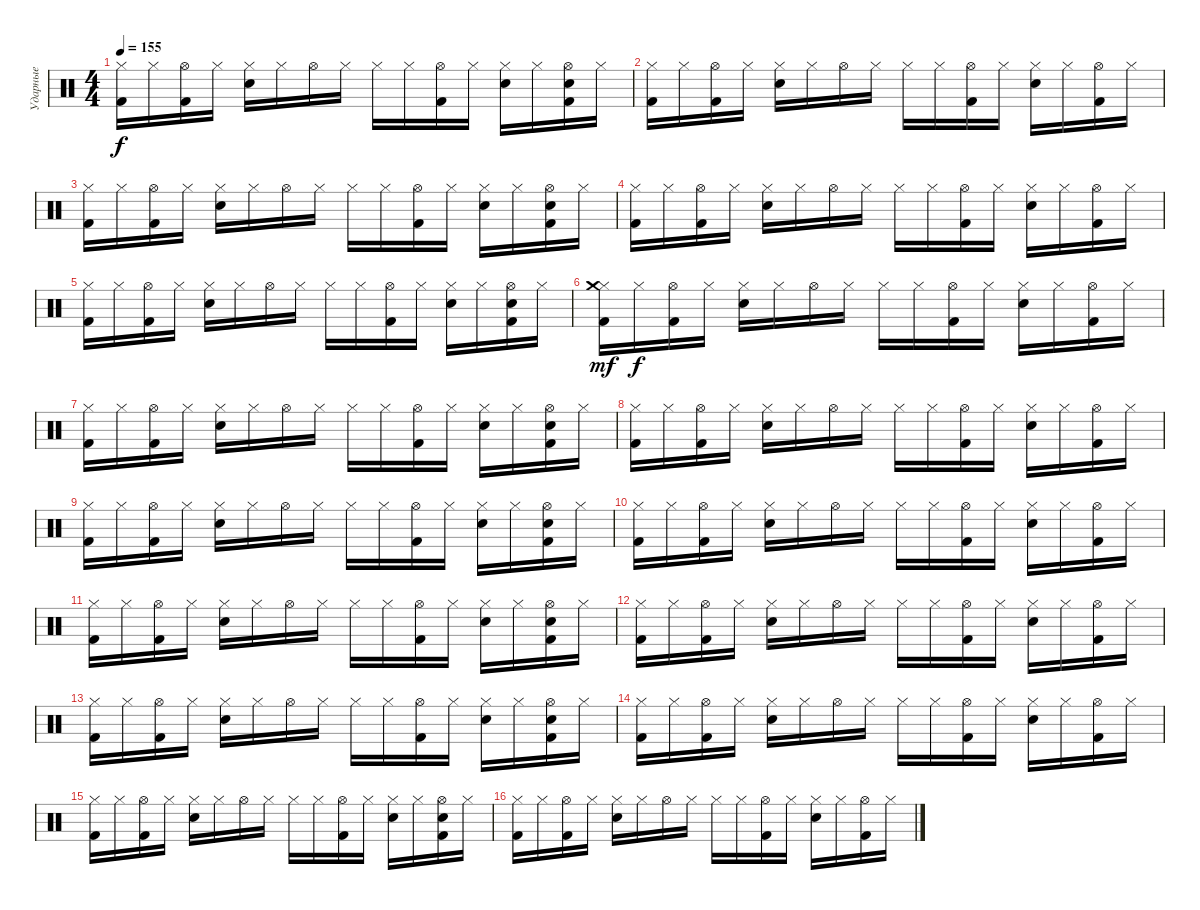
\track ("Ударные" "Ударные") {instrument percussion}
\staff {score}
\articulation defaults
\ts (4 4)
\tempo 155
\clef neutral
\ks c
("Hi-Hat (closed)" "Kick (hit) 2").16{dy f} "Hi-Hat (closed)".16 ("Hi-Hat (open)" "Kick (hit) 2").16 "Hi-Hat (closed)".16 ("Hi-Hat (closed)" "Electric Snare (hit)").16 "Hi-Hat (closed)".16 "Hi-Hat (open)".16 "Hi-Hat (closed)".16 "Hi-Hat (closed)".16 "Hi-Hat (closed)".16 ("Hi-Hat (open)" "Kick (hit) 2").16 "Hi-Hat (closed)".16 ("Hi-Hat (closed)" "Electric Snare (hit)").16 "Hi-Hat (closed)".16 ("Hi-Hat (open)" "Kick (hit) 2" "Electric Snare (hit)").16 "Hi-Hat (closed)".16 |
("Hi-Hat (closed)" "Kick (hit) 2").16 "Hi-Hat (closed)".16 ("Hi-Hat (open)" "Kick (hit) 2").16 "Hi-Hat (closed)".16 ("Hi-Hat (closed)" "Electric Snare (hit)").16 "Hi-Hat (closed)".16 "Hi-Hat (open)".16 "Hi-Hat (closed)".16 "Hi-Hat (closed)".16 "Hi-Hat (closed)".16 ("Hi-Hat (open)" "Kick (hit) 2").16 "Hi-Hat (closed)".16 ("Hi-Hat (closed)" "Electric Snare (hit)").16 "Hi-Hat (closed)".16 ("Hi-Hat (open)" "Kick (hit) 2").16 "Hi-Hat (closed)".16 |
("Hi-Hat (closed)" "Kick (hit) 2").16 "Hi-Hat (closed)".16 ("Hi-Hat (open)" "Kick (hit) 2").16 "Hi-Hat (closed)".16 ("Hi-Hat (closed)" "Electric Snare (hit)").16 "Hi-Hat (closed)".16 "Hi-Hat (open)".16 "Hi-Hat (closed)".16 "Hi-Hat (closed)".16 "Hi-Hat (closed)".16 ("Hi-Hat (open)" "Kick (hit) 2").16 "Hi-Hat (closed)".16 ("Hi-Hat (closed)" "Electric Snare (hit)").16 "Hi-Hat (closed)".16 ("Hi-Hat (open)" "Kick (hit) 2" "Electric Snare (hit)").16 "Hi-Hat (closed)".16 |
("Hi-Hat (closed)" "Kick (hit) 2").16 "Hi-Hat (closed)".16 ("Hi-Hat (open)" "Kick (hit) 2").16 "Hi-Hat (closed)".16 ("Hi-Hat (closed)" "Electric Snare (hit)").16 "Hi-Hat (closed)".16 "Hi-Hat (open)".16 "Hi-Hat (closed)".16 "Hi-Hat (closed)".16 "Hi-Hat (closed)".16 ("Hi-Hat (open)" "Kick (hit) 2").16 "Hi-Hat (closed)".16 ("Hi-Hat (closed)" "Electric Snare (hit)").16 "Hi-Hat (closed)".16 ("Hi-Hat (open)" "Kick (hit) 2").16 "Hi-Hat (closed)".16 |
("Hi-Hat (closed)" "Kick (hit) 2").16 "Hi-Hat (closed)".16 ("Hi-Hat (open)" "Kick (hit) 2").16 "Hi-Hat (closed)".16 ("Hi-Hat (closed)" "Electric Snare (hit)").16 "Hi-Hat (closed)".16 "Hi-Hat (open)".16 "Hi-Hat (closed)".16 "Hi-Hat (closed)".16 "Hi-Hat (closed)".16 ("Hi-Hat (open)" "Kick (hit) 2").16 "Hi-Hat (closed)".16 ("Hi-Hat (closed)" "Electric Snare (hit)").16 "Hi-Hat (closed)".16 ("Hi-Hat (open)" "Kick (hit) 2" "Electric Snare (hit)").16 "Hi-Hat (closed)".16 |
("Hi-Hat (closed)" "Kick (hit) 2" "Crash medium (hit)").16{dy mf} "Hi-Hat (closed)".16{dy f} ("Hi-Hat (open)" "Kick (hit) 2").16 "Hi-Hat (closed)".16 ("Hi-Hat (closed)" "Electric Snare (hit)").16 "Hi-Hat (closed)".16 "Hi-Hat (open)".16 "Hi-Hat (closed)".16 "Hi-Hat (closed)".16 "Hi-Hat (closed)".16 ("Hi-Hat (open)" "Kick (hit) 2").16 "Hi-Hat (closed)".16 ("Hi-Hat (closed)" "Electric Snare (hit)").16 "Hi-Hat (closed)".16 ("Hi-Hat (open)" "Kick (hit) 2").16 "Hi-Hat (closed)".16 |
("Hi-Hat (closed)" "Kick (hit) 2").16 "Hi-Hat (closed)".16 ("Hi-Hat (open)" "Kick (hit) 2").16 "Hi-Hat (closed)".16 ("Hi-Hat (closed)" "Electric Snare (hit)").16 "Hi-Hat (closed)".16 "Hi-Hat (open)".16 "Hi-Hat (closed)".16 "Hi-Hat (closed)".16 "Hi-Hat (closed)".16 ("Hi-Hat (open)" "Kick (hit) 2").16 "Hi-Hat (closed)".16 ("Hi-Hat (closed)" "Electric Snare (hit)").16 "Hi-Hat (closed)".16 ("Hi-Hat (open)" "Kick (hit) 2" "Electric Snare (hit)").16 "Hi-Hat (closed)".16 |
("Hi-Hat (closed)" "Kick (hit) 2").16 "Hi-Hat (closed)".16 ("Hi-Hat (open)" "Kick (hit) 2").16 "Hi-Hat (closed)".16 ("Hi-Hat (closed)" "Electric Snare (hit)").16 "Hi-Hat (closed)".16 "Hi-Hat (open)".16 "Hi-Hat (closed)".16 "Hi-Hat (closed)".16 "Hi-Hat (closed)".16 ("Hi-Hat (open)" "Kick (hit) 2").16 "Hi-Hat (closed)".16 ("Hi-Hat (closed)" "Electric Snare (hit)").16 "Hi-Hat (closed)".16 ("Hi-Hat (open)" "Kick (hit) 2").16 "Hi-Hat (closed)".16 |
("Hi-Hat (closed)" "Kick (hit) 2").16 "Hi-Hat (closed)".16 ("Hi-Hat (open)" "Kick (hit) 2").16 "Hi-Hat (closed)".16 ("Hi-Hat (closed)" "Electric Snare (hit)").16 "Hi-Hat (closed)".16 "Hi-Hat (open)".16 "Hi-Hat (closed)".16 "Hi-Hat (closed)".16 "Hi-Hat (closed)".16 ("Hi-Hat (open)" "Kick (hit) 2").16 "Hi-Hat (closed)".16 ("Hi-Hat (closed)" "Electric Snare (hit)").16 "Hi-Hat (closed)".16 ("Hi-Hat (open)" "Kick (hit) 2" "Electric Snare (hit)").16 "Hi-Hat (closed)".16 |
("Hi-Hat (closed)" "Kick (hit) 2").16 "Hi-Hat (closed)".16 ("Hi-Hat (open)" "Kick (hit) 2").16 "Hi-Hat (closed)".16 ("Hi-Hat (closed)" "Electric Snare (hit)").16 "Hi-Hat (closed)".16 "Hi-Hat (open)".16 "Hi-Hat (closed)".16 "Hi-Hat (closed)".16 "Hi-Hat (closed)".16 ("Hi-Hat (open)" "Kick (hit) 2").16 "Hi-Hat (closed)".16 ("Hi-Hat (closed)" "Electric Snare (hit)").16 "Hi-Hat (closed)".16 ("Hi-Hat (open)" "Kick (hit) 2").16 "Hi-Hat (closed)".16 |
("Hi-Hat (closed)" "Kick (hit) 2").16 "Hi-Hat (closed)".16 ("Hi-Hat (open)" "Kick (hit) 2").16 "Hi-Hat (closed)".16 ("Hi-Hat (closed)" "Electric Snare (hit)").16 "Hi-Hat (closed)".16 "Hi-Hat (open)".16 "Hi-Hat (closed)".16 "Hi-Hat (closed)".16 "Hi-Hat (closed)".16 ("Hi-Hat (open)" "Kick (hit) 2").16 "Hi-Hat (closed)".16 ("Hi-Hat (closed)" "Electric Snare (hit)").16 "Hi-Hat (closed)".16 ("Hi-Hat (open)" "Kick (hit) 2" "Electric Snare (hit)").16 "Hi-Hat (closed)".16 |
("Hi-Hat (closed)" "Kick (hit) 2").16 "Hi-Hat (closed)".16 ("Hi-Hat (open)" "Kick (hit) 2").16 "Hi-Hat (closed)".16 ("Hi-Hat (closed)" "Electric Snare (hit)").16 "Hi-Hat (closed)".16 "Hi-Hat (open)".16 "Hi-Hat (closed)".16 "Hi-Hat (closed)".16 "Hi-Hat (closed)".16 ("Hi-Hat (open)" "Kick (hit) 2").16 "Hi-Hat (closed)".16 ("Hi-Hat (closed)" "Electric Snare (hit)").16 "Hi-Hat (closed)".16 ("Hi-Hat (open)" "Kick (hit) 2").16 "Hi-Hat (closed)".16 |
("Hi-Hat (closed)" "Kick (hit) 2").16 "Hi-Hat (closed)".16 ("Hi-Hat (open)" "Kick (hit) 2").16 "Hi-Hat (closed)".16 ("Hi-Hat (closed)" "Electric Snare (hit)").16 "Hi-Hat (closed)".16 "Hi-Hat (open)".16 "Hi-Hat (closed)".16 "Hi-Hat (closed)".16 "Hi-Hat (closed)".16 ("Hi-Hat (open)" "Kick (hit) 2").16 "Hi-Hat (closed)".16 ("Hi-Hat (closed)" "Electric Snare (hit)").16 "Hi-Hat (closed)".16 ("Hi-Hat (open)" "Kick (hit) 2" "Electric Snare (hit)").16 "Hi-Hat (closed)".16 |
("Hi-Hat (closed)" "Kick (hit) 2").16 "Hi-Hat (closed)".16 ("Hi-Hat (open)" "Kick (hit) 2").16 "Hi-Hat (closed)".16 ("Hi-Hat (closed)" "Electric Snare (hit)").16 "Hi-Hat (closed)".16 "Hi-Hat (open)".16 "Hi-Hat (closed)".16 "Hi-Hat (closed)".16 "Hi-Hat (closed)".16 ("Hi-Hat (open)" "Kick (hit) 2").16 "Hi-Hat (closed)".16 ("Hi-Hat (closed)" "Electric Snare (hit)").16 "Hi-Hat (closed)".16 ("Hi-Hat (open)" "Kick (hit) 2").16 "Hi-Hat (closed)".16 |
("Hi-Hat (closed)" "Kick (hit) 2").16 "Hi-Hat (closed)".16 ("Hi-Hat (open)" "Kick (hit) 2").16 "Hi-Hat (closed)".16 ("Hi-Hat (closed)" "Electric Snare (hit)").16 "Hi-Hat (closed)".16 "Hi-Hat (open)".16 "Hi-Hat (closed)".16 "Hi-Hat (closed)".16 "Hi-Hat (closed)".16 ("Hi-Hat (open)" "Kick (hit) 2").16 "Hi-Hat (closed)".16 ("Hi-Hat (closed)" "Electric Snare (hit)").16 "Hi-Hat (closed)".16 ("Hi-Hat (open)" "Kick (hit) 2" "Electric Snare (hit)").16 "Hi-Hat (closed)".16 |
("Hi-Hat (closed)" "Kick (hit) 2").16 "Hi-Hat (closed)".16 ("Hi-Hat (open)" "Kick (hit) 2").16 "Hi-Hat (closed)".16 ("Hi-Hat (closed)" "Electric Snare (hit)").16 "Hi-Hat (closed)".16 "Hi-Hat (open)".16 "Hi-Hat (closed)".16 "Hi-Hat (closed)".16 "Hi-Hat (closed)".16 ("Hi-Hat (open)" "Kick (hit) 2").16 "Hi-Hat (closed)".16 ("Hi-Hat (closed)" "Electric Snare (hit)").16 "Hi-Hat (closed)".16 ("Hi-Hat (open)" "Kick (hit) 2").16 "Hi-Hat (closed)".16
